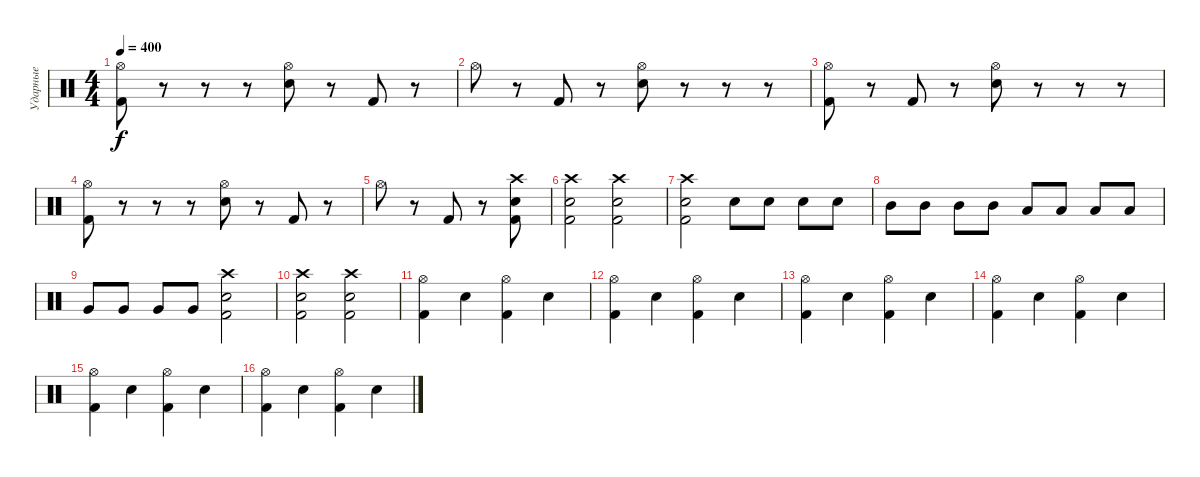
\track ("Ударные" "Ударные") {instrument percussion}
\staff {score}
\articulation defaults
\ts (4 4)
\tempo 400
\clef neutral
\ks c
("Kick (hit) 2" "Hi-Hat (open)").8{dy f} r.8 r.8 r.8 ("Electric Snare (hit)" "Hi-Hat (open)").8 r.8 "Kick (hit) 2".8 r.8 |
"Hi-Hat (open)".8 r.8 "Kick (hit) 2".8 r.8 ("Electric Snare (hit)" "Hi-Hat (open)").8 r.8 r.8 r.8 |
("Kick (hit) 2" "Hi-Hat (open)").8 r.8 "Kick (hit) 2".8 r.8 ("Electric Snare (hit)" "Hi-Hat (open)").8 r.8 r.8 r.8 |
("Kick (hit) 2" "Hi-Hat (open)").8 r.8 r.8 r.8 ("Electric Snare (hit)" "Hi-Hat (open)").8 r.8 "Kick (hit) 2".8 r.8 |
"Hi-Hat (open)".8 r.8 "Kick (hit) 2".8 r.8 ("Kick (hit) 2" "Electric Snare (hit)" "Crash high (hit)").8 |
("Kick (hit) 2" "Electric Snare (hit)" "Crash high (hit)").2 ("Kick (hit) 2" "Electric Snare (hit)" "Crash high (hit)").2 |
("Kick (hit) 2" "Electric Snare (hit)" "Crash high (hit)").2 "Electric Snare (hit)".8 "Electric Snare (hit)".8 "Electric Snare (hit)".8 "Electric Snare (hit)".8 |
"Mid Tom (hit)".8 "Mid Tom (hit)".8 "Mid Tom (hit)".8 "Mid Tom (hit)".8 "Low Tom (hit)".8 "Low Tom (hit)".8 "Low Tom (hit)".8 "Low Tom (hit)".8 |
"Very Low Tom (hit)".8 "Very Low Tom (hit)".8 "Very Low Tom (hit)".8 "Very Low Tom (hit)".8 ("Kick (hit) 2" "Electric Snare (hit)" "Crash high (hit)").2 |
("Crash high (hit)" "Kick (hit) 2" "Electric Snare (hit)").2 ("Electric Snare (hit)" "Kick (hit) 2" "Crash high (hit)").2 |
("Kick (hit) 2" "Hi-Hat (open)").4 "Electric Snare (hit)".4 ("Kick (hit) 2" "Hi-Hat (open)").4 "Electric Snare (hit)".4 |
("Kick (hit) 2" "Hi-Hat (open)").4 "Electric Snare (hit)".4 ("Kick (hit) 2" "Hi-Hat (open)").4 "Electric Snare (hit)".4 |
("Kick (hit) 2" "Hi-Hat (open)").4 "Electric Snare (hit)".4 ("Kick (hit) 2" "Hi-Hat (open)").4 "Electric Snare (hit)".4 |
("Kick (hit) 2" "Hi-Hat (open)").4 "Electric Snare (hit)".4 ("Kick (hit) 2" "Hi-Hat (open)").4 "Electric Snare (hit)".4 |
("Kick (hit) 2" "Hi-Hat (open)").4 "Electric Snare (hit)".4 ("Kick (hit) 2" "Hi-Hat (open)").4 "Electric Snare (hit)".4 |
("Kick (hit) 2" "Hi-Hat (open)").4 "Electric Snare (hit)".4 ("Kick (hit) 2" "Hi-Hat (open)").4 "Electric Snare (hit)".4
